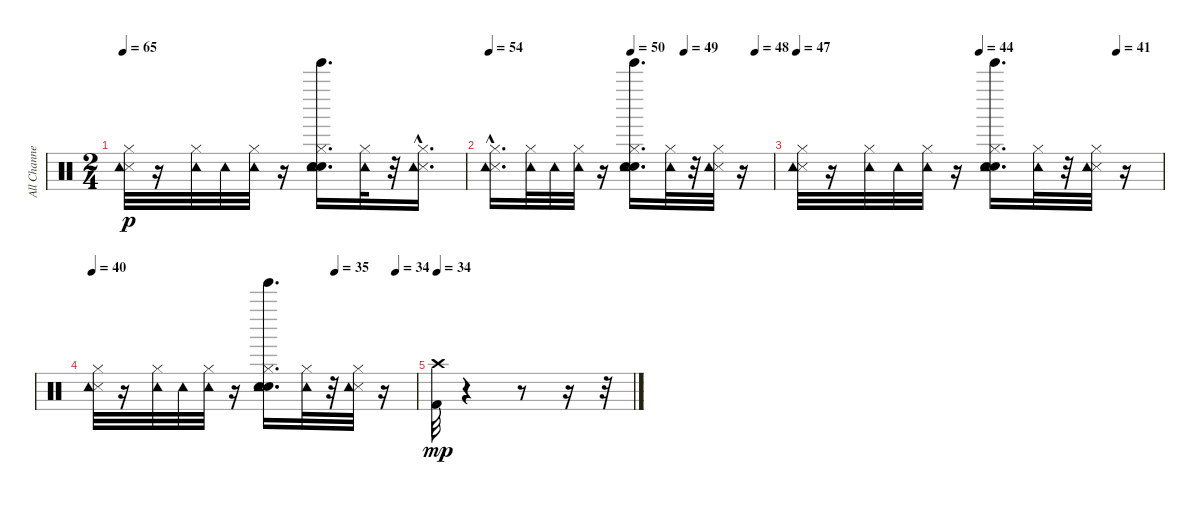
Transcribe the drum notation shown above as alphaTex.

\track ("All Channels*merged" "All Channe") {instrument percussion}
\staff {score}
\articulation defaults
\ts (2 4)
\tempo 65
\clef neutral
\ks c
("Metronome (hit)" "Hi-Hat (closed)" "Tambourine (hit)").32{dy p} r.16 ("Hi-Hat (closed)" "Tambourine (hit)").32 "Tambourine (hit)".32 ("Hi-Hat (closed)" "Tambourine (hit)").32 r.16 ("Metronome (bell)" "Electric Snare (hit)" "Hi-Hat (closed)" "Tambourine (hit)" "Tinkle Bell (hit)").16{d} ("Hi-Hat (closed)" "Tambourine (hit)").32 r.32 ("Metronome (hit)"{hac} "Hi-Hat (closed)" "Tambourine (hit)").16{d} |
\tempo 54
\tempo (50 0.5)
\tempo (49 0.6875)
\tempo (48 0.9375)
("Metronome (hit)"{hac} "Hi-Hat (closed)" "Tambourine (hit)").16{d} ("Hi-Hat (closed)" "Tambourine (hit)").32 "Tambourine (hit)".32 ("Hi-Hat (closed)" "Tambourine (hit)").32 r.16 ("Metronome (bell)" "Electric Snare (hit)" "Hi-Hat (closed)" "Tambourine (hit)" "Tinkle Bell (hit)").16{d} ("Hi-Hat (closed)" "Tambourine (hit)").32 r.32 ("Metronome (hit)" "Hi-Hat (closed)" "Tambourine (hit)").32 r.16 |
\tempo 47
\tempo (44 0.5)
\tempo (41 0.875)
("Metronome (hit)" "Hi-Hat (closed)" "Tambourine (hit)").32 r.16 ("Hi-Hat (closed)" "Tambourine (hit)").32 "Tambourine (hit)".32 ("Hi-Hat (closed)" "Tambourine (hit)").32 r.16 ("Metronome (bell)" "Electric Snare (hit)" "Hi-Hat (closed)" "Tambourine (hit)" "Tinkle Bell (hit)").16{d} ("Hi-Hat (closed)" "Tambourine (hit)").32 r.32 ("Metronome (hit)" "Hi-Hat (closed)" "Tambourine (hit)").32 r.16 |
\tempo 40
\tempo (35 0.75)
\tempo (34 0.9375)
("Metronome (hit)" "Hi-Hat (closed)" "Tambourine (hit)").32 r.16 ("Hi-Hat (closed)" "Tambourine (hit)").32 "Tambourine (hit)".32 ("Hi-Hat (closed)" "Tambourine (hit)").32 r.16 ("Metronome (bell)" "Electric Snare (hit)" "Hi-Hat (closed)" "Tambourine (hit)" "Tinkle Bell (hit)").16{d} ("Hi-Hat (closed)" "Tambourine (hit)").32 r.32 ("Metronome (hit)" "Hi-Hat (closed)" "Tambourine (hit)").32 r.16 |
\tempo 34
("Kick (hit) 2" "Crash high (hit)").32{dy mp} r.4 r.8 r.16 r.32
